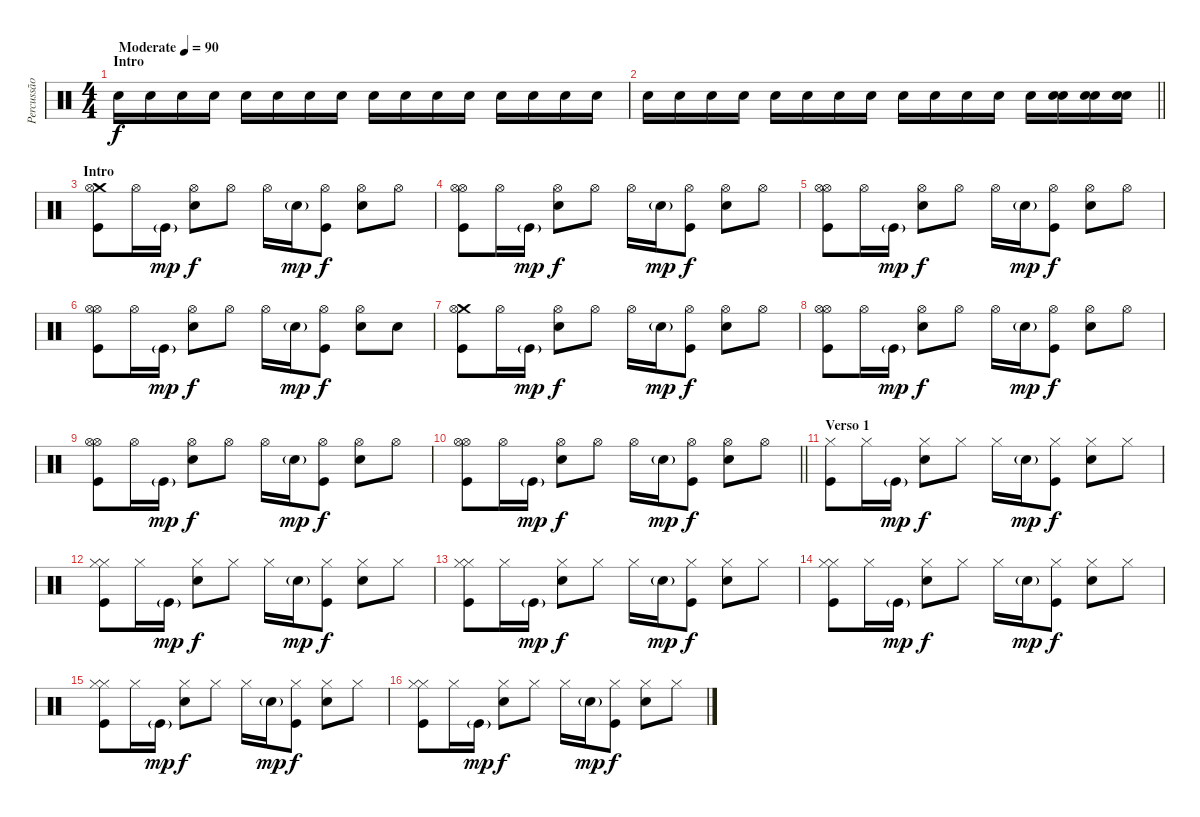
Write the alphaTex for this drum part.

\track ("Percussão" "Percussão") {instrument percussion}
\staff {score}
\articulation defaults
\ts (4 4)
\section ("" "Intro")
\tempo (90 "Moderate")
\clef neutral
\ks c "Snare (hit) 2".16{dy f volume 1} "Snare (hit) 2".16{volume 1} "Snare (hit) 2".16{volume 2} "Snare (hit) 2".16{volume 2} "Snare (hit) 2".16{volume 3} "Snare (hit) 2".16{volume 3} "Snare (hit) 2".16{volume 4} "Snare (hit) 2".16{volume 4} "Snare (hit) 2".16{volume 5} "Snare (hit) 2".16{volume 5} "Snare (hit) 2".16{volume 5} "Snare (hit) 2".16{volume 6} "Snare (hit) 2".16{volume 6} "Snare (hit) 2".16{volume 7} "Snare (hit) 2".16{volume 7} "Snare (hit) 2".16{volume 7}
|
\barLineRight lightlight "Snare (hit) 2".16{volume 8} "Snare (hit) 2".16{volume 8} "Snare (hit) 2".16{volume 8} "Snare (hit) 2".16{volume 9} "Snare (hit) 2".16{volume 9} "Snare (hit) 2".16{volume 9} "Snare (hit) 2".16{volume 9} "Snare (hit) 2".16{volume 9} "Snare (hit) 2".16{volume 10} "Snare (hit) 2".16{volume 10} "Snare (hit) 2".16{volume 10} "Snare (hit) 2".16{volume 11} "Snare (hit) 2".16{volume 11}
("Snare (hit) 2" "Snare (hit) 2").16{volume 12} ("Snare (hit) 2" "Snare (hit) 2").16{volume 12} ("Snare (hit) 2" "Snare (hit) 2").16 |
\section ("" "Intro")
("Crash medium (hit)" "Kick (hit)" "Hi-Hat (open)").8 "Hi-Hat (open)".16 "Kick (hit)"{g}.16{dy mp} ("Snare (hit) 2" "Hi-Hat (open)").8{dy f} "Hi-Hat (open)".8 "Hi-Hat (open)".16 "Snare (hit) 2"{g}.16{dy mp} ("Hi-Hat (open)" "Kick (hit)").8{dy f} ("Hi-Hat (open)" "Snare (hit) 2").8 "Hi-Hat (open)".8 |
("Hi-Hat (open)" "Kick (hit)" "Hi-Hat (open)").8 "Hi-Hat (open)".16 "Kick (hit)"{g}.16{dy mp} ("Snare (hit) 2" "Hi-Hat (open)").8{dy f} "Hi-Hat (open)".8 "Hi-Hat (open)".16 "Snare (hit) 2"{g}.16{dy mp} ("Hi-Hat (open)" "Kick (hit)").8{dy f} ("Hi-Hat (open)" "Snare (hit) 2").8 "Hi-Hat (open)".8 |
("Hi-Hat (open)" "Kick (hit)" "Hi-Hat (open)").8 "Hi-Hat (open)".16 "Kick (hit)"{g}.16{dy mp} ("Snare (hit) 2" "Hi-Hat (open)").8{dy f} "Hi-Hat (open)".8 "Hi-Hat (open)".16 "Snare (hit) 2"{g}.16{dy mp} ("Hi-Hat (open)" "Kick (hit)").8{dy f} ("Hi-Hat (open)" "Snare (hit) 2").8 "Hi-Hat (open)".8 |
("Hi-Hat (open)" "Kick (hit)" "Hi-Hat (open)").8 "Hi-Hat (open)".16 "Kick (hit)"{g}.16{dy mp} ("Snare (hit) 2" "Hi-Hat (open)").8{dy f} "Hi-Hat (open)".8 "Hi-Hat (open)".16 "Snare (hit) 2"{g}.16{dy mp} ("Hi-Hat (open)" "Kick (hit)").8{dy f} ("Hi-Hat (open)" "Snare (hit) 2").8 "Snare (hit) 2".8 |
("Crash medium (hit)" "Kick (hit)" "Hi-Hat (open)").8 "Hi-Hat (open)".16 "Kick (hit)"{g}.16{dy mp} ("Snare (hit) 2" "Hi-Hat (open)").8{dy f} "Hi-Hat (open)".8 "Hi-Hat (open)".16 "Snare (hit) 2"{g}.16{dy mp} ("Hi-Hat (open)" "Kick (hit)").8{dy f} ("Hi-Hat (open)" "Snare (hit) 2").8 "Hi-Hat (open)".8 |
("Hi-Hat (open)" "Kick (hit)" "Hi-Hat (open)").8 "Hi-Hat (open)".16 "Kick (hit)"{g}.16{dy mp} ("Snare (hit) 2" "Hi-Hat (open)").8{dy f} "Hi-Hat (open)".8 "Hi-Hat (open)".16 "Snare (hit) 2"{g}.16{dy mp} ("Hi-Hat (open)" "Kick (hit)").8{dy f} ("Hi-Hat (open)" "Snare (hit) 2").8 "Hi-Hat (open)".8 |
("Hi-Hat (open)" "Kick (hit)" "Hi-Hat (open)").8 "Hi-Hat (open)".16 "Kick (hit)"{g}.16{dy mp} ("Snare (hit) 2" "Hi-Hat (open)").8{dy f} "Hi-Hat (open)".8 "Hi-Hat (open)".16 "Snare (hit) 2"{g}.16{dy mp} ("Hi-Hat (open)" "Kick (hit)").8{dy f} ("Hi-Hat (open)" "Snare (hit) 2").8 "Hi-Hat (open)".8 |
\barLineRight lightlight
("Hi-Hat (open)" "Kick (hit)" "Hi-Hat (open)").8 "Hi-Hat (open)".16 "Kick (hit)"{g}.16{dy mp} ("Snare (hit) 2" "Hi-Hat (open)").8{dy f} "Hi-Hat (open)".8 "Hi-Hat (open)".16 "Snare (hit) 2"{g}.16{dy mp} ("Hi-Hat (open)" "Kick (hit)").8{dy f} ("Hi-Hat (open)" "Snare (hit) 2").8 "Hi-Hat (open)".8 |
\section ("" "Verso 1")
("Hi-Hat (closed)" "Kick (hit)").8 "Hi-Hat (closed)".16 "Kick (hit)"{g}.16{dy mp} ("Snare (hit) 2" "Hi-Hat (closed)").8{dy f} "Hi-Hat (closed)".8 "Hi-Hat (closed)".16 "Snare (hit) 2"{g}.16{dy mp} ("Hi-Hat (closed)" "Kick (hit)").8{dy f} ("Hi-Hat (closed)" "Snare (hit) 2").8 "Hi-Hat (closed)".8 |
("Hi-Hat (closed)" "Kick (hit)" "Hi-Hat (closed)").8 "Hi-Hat (closed)".16 "Kick (hit)"{g}.16{dy mp} ("Snare (hit) 2" "Hi-Hat (closed)").8{dy f} "Hi-Hat (closed)".8 "Hi-Hat (closed)".16 "Snare (hit) 2"{g}.16{dy mp} ("Hi-Hat (closed)" "Kick (hit)").8{dy f} ("Hi-Hat (closed)" "Snare (hit) 2").8 "Hi-Hat (closed)".8 |
("Hi-Hat (closed)" "Kick (hit)" "Hi-Hat (closed)").8 "Hi-Hat (closed)".16 "Kick (hit)"{g}.16{dy mp} ("Snare (hit) 2" "Hi-Hat (closed)").8{dy f} "Hi-Hat (closed)".8 "Hi-Hat (closed)".16 "Snare (hit) 2"{g}.16{dy mp} ("Hi-Hat (closed)" "Kick (hit)").8{dy f} ("Hi-Hat (closed)" "Snare (hit) 2").8 "Hi-Hat (closed)".8 |
("Hi-Hat (closed)" "Kick (hit)" "Hi-Hat (closed)").8 "Hi-Hat (closed)".16 "Kick (hit)"{g}.16{dy mp} ("Snare (hit) 2" "Hi-Hat (closed)").8{dy f} "Hi-Hat (closed)".8 "Hi-Hat (closed)".16 "Snare (hit) 2"{g}.16{dy mp} ("Hi-Hat (closed)" "Kick (hit)").8{dy f} ("Hi-Hat (closed)" "Snare (hit) 2").8 "Hi-Hat (closed)".8 |
("Hi-Hat (closed)" "Kick (hit)" "Hi-Hat (closed)").8 "Hi-Hat (closed)".16 "Kick (hit)"{g}.16{dy mp} ("Snare (hit) 2" "Hi-Hat (closed)").8{dy f} "Hi-Hat (closed)".8 "Hi-Hat (closed)".16 "Snare (hit) 2"{g}.16{dy mp} ("Hi-Hat (closed)" "Kick (hit)").8{dy f} ("Hi-Hat (closed)" "Snare (hit) 2").8 "Hi-Hat (closed)".8 |
("Hi-Hat (closed)" "Kick (hit)" "Hi-Hat (closed)").8 "Hi-Hat (closed)".16 "Kick (hit)"{g}.16{dy mp} ("Snare (hit) 2" "Hi-Hat (closed)").8{dy f} "Hi-Hat (closed)".8 "Hi-Hat (closed)".16 "Snare (hit) 2"{g}.16{dy mp} ("Hi-Hat (closed)" "Kick (hit)").8{dy f} ("Hi-Hat (closed)" "Snare (hit) 2").8 "Hi-Hat (closed)".8
